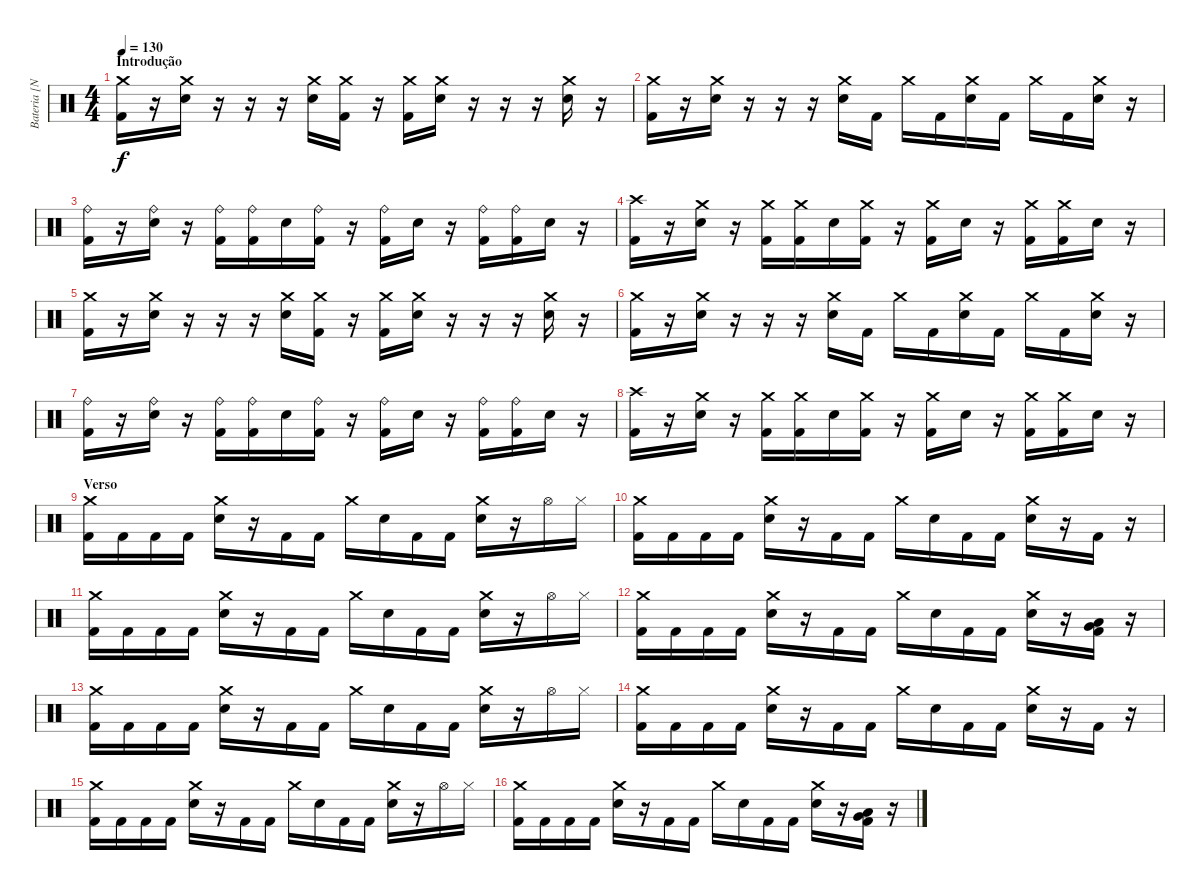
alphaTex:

\track ("Bateria [Nô]" "Bateria [N") {instrument percussion}
\staff {score}
\articulation defaults
\ts (4 4)
\section ("" "Introdução")
\tempo 130
\clef neutral
\ks c
("Crash medium (hit)" "Kick (hit) 2").16{dy f} r.16 ("Crash medium (hit)" "Snare (hit) 2").16 r.16 r.16 r.16 ("Crash medium (hit)" "Snare (hit) 2").16 ("Crash medium (hit)" "Kick (hit) 2").16 r.16 ("Crash medium (hit)" "Kick (hit) 2").16 ("Crash medium (hit)" "Snare (hit) 2").16 r.16 r.16 r.16 ("Crash medium (hit)" "Snare (hit) 2").16 r.16 |
("Crash medium (hit)" "Kick (hit) 2").16 r.16 ("Crash medium (hit)" "Snare (hit) 2").16 r.16 r.16 r.16 ("Crash medium (hit)" "Snare (hit) 2").16 "Kick (hit) 2".16 "Crash medium (hit)".16 "Kick (hit) 2".16 ("Crash medium (hit)" "Snare (hit) 2").16 "Kick (hit) 2".16 "Crash medium (hit)".16 "Kick (hit) 2".16 ("Crash medium (hit)" "Snare (hit) 2").16 r.16 |
("Ride (bell)" "Kick (hit) 2").16 r.16 ("Ride (bell)" "Snare (hit) 2").16 r.16 ("Ride (bell)" "Kick (hit) 2").16 ("Ride (bell)" "Kick (hit) 2").16 "Snare (hit) 2".16 ("Ride (bell)" "Kick (hit) 2").16 r.16 ("Ride (bell)" "Kick (hit) 2").16 "Snare (hit) 2".16 r.16 ("Ride (bell)" "Kick (hit) 2").16 ("Ride (bell)" "Kick (hit) 2").16 "Snare (hit) 2".16 r.16 |
("Crash high (hit)" "Kick (hit) 2").16 r.16 ("Crash medium (hit)" "Snare (hit) 2").16 r.16 ("Crash medium (hit)" "Kick (hit) 2").16 ("Crash medium (hit)" "Kick (hit) 2").16 "Snare (hit) 2".16 ("Crash medium (hit)" "Kick (hit) 2").16 r.16 ("Crash medium (hit)" "Kick (hit) 2").16 "Snare (hit) 2".16 r.16 ("Crash medium (hit)" "Kick (hit) 2").16 ("Crash medium (hit)" "Kick (hit) 2").16 "Snare (hit) 2".16 r.16 |
("Crash medium (hit)" "Kick (hit) 2").16 r.16 ("Crash medium (hit)" "Snare (hit) 2").16 r.16 r.16 r.16 ("Crash medium (hit)" "Snare (hit) 2").16 ("Crash medium (hit)" "Kick (hit) 2").16 r.16 ("Crash medium (hit)" "Kick (hit) 2").16 ("Crash medium (hit)" "Snare (hit) 2").16 r.16 r.16 r.16 ("Crash medium (hit)" "Snare (hit) 2").16 r.16 |
("Crash medium (hit)" "Kick (hit) 2").16 r.16 ("Crash medium (hit)" "Snare (hit) 2").16 r.16 r.16 r.16 ("Crash medium (hit)" "Snare (hit) 2").16 "Kick (hit) 2".16 "Crash medium (hit)".16 "Kick (hit) 2".16 ("Crash medium (hit)" "Snare (hit) 2").16 "Kick (hit) 2".16 "Crash medium (hit)".16 "Kick (hit) 2".16 ("Crash medium (hit)" "Snare (hit) 2").16 r.16 |
("Ride (bell)" "Kick (hit) 2").16 r.16 ("Ride (bell)" "Snare (hit) 2").16 r.16 ("Ride (bell)" "Kick (hit) 2").16 ("Ride (bell)" "Kick (hit) 2").16 "Snare (hit) 2".16 ("Ride (bell)" "Kick (hit) 2").16 r.16 ("Ride (bell)" "Kick (hit) 2").16 "Snare (hit) 2".16 r.16 ("Ride (bell)" "Kick (hit) 2").16 ("Ride (bell)" "Kick (hit) 2").16 "Snare (hit) 2".16 r.16 |
("Crash high (hit)" "Kick (hit) 2").16 r.16 ("Crash medium (hit)" "Snare (hit) 2").16 r.16 ("Crash medium (hit)" "Kick (hit) 2").16 ("Crash medium (hit)" "Kick (hit) 2").16 "Snare (hit) 2".16 ("Crash medium (hit)" "Kick (hit) 2").16 r.16 ("Crash medium (hit)" "Kick (hit) 2").16 "Snare (hit) 2".16 r.16 ("Crash medium (hit)" "Kick (hit) 2").16 ("Crash medium (hit)" "Kick (hit) 2").16 "Snare (hit) 2".16 r.16 |
\section ("" "Verso")
("Crash medium (hit)" "Kick (hit) 2").16 "Kick (hit) 2".16 "Kick (hit) 2".16 "Kick (hit) 2".16 ("Crash medium (hit)" "Snare (hit) 2").16 r.16 "Kick (hit) 2".16 "Kick (hit) 2".16 "Crash medium (hit)".16 "Snare (hit) 2".16 "Kick (hit) 2".16 "Kick (hit) 2".16 ("Crash medium (hit)" "Snare (hit) 2").16 r.16 "Hi-Hat (open)".16 "Hi-Hat (closed)".16 |
("Crash medium (hit)" "Kick (hit) 2").16 "Kick (hit) 2".16 "Kick (hit) 2".16 "Kick (hit) 2".16 ("Crash medium (hit)" "Snare (hit) 2").16 r.16 "Kick (hit) 2".16 "Kick (hit) 2".16 "Crash medium (hit)".16 "Snare (hit) 2".16 "Kick (hit) 2".16 "Kick (hit) 2".16 ("Crash medium (hit)" "Snare (hit) 2").16 r.16 "Kick (hit) 2".16 r.16 |
("Crash medium (hit)" "Kick (hit) 2").16 "Kick (hit) 2".16 "Kick (hit) 2".16 "Kick (hit) 2".16 ("Crash medium (hit)" "Snare (hit) 2").16 r.16 "Kick (hit) 2".16 "Kick (hit) 2".16 "Crash medium (hit)".16 "Snare (hit) 2".16 "Kick (hit) 2".16 "Kick (hit) 2".16 ("Crash medium (hit)" "Snare (hit) 2").16 r.16 "Hi-Hat (open)".16 "Hi-Hat (closed)".16 |
("Crash medium (hit)" "Kick (hit) 2").16 "Kick (hit) 2".16 "Kick (hit) 2".16 "Kick (hit) 2".16 ("Crash medium (hit)" "Snare (hit) 2").16 r.16 "Kick (hit) 2".16 "Kick (hit) 2".16 "Crash medium (hit)".16 "Snare (hit) 2".16 "Kick (hit) 2".16 "Kick (hit) 2".16 ("Crash medium (hit)" "Snare (hit) 2").16 r.16 ("Very Low Tom (hit)" "Low Floor Tom (hit)" "Kick (hit) 2").16 r.16 |
("Crash medium (hit)" "Kick (hit) 2").16 "Kick (hit) 2".16 "Kick (hit) 2".16 "Kick (hit) 2".16 ("Crash medium (hit)" "Snare (hit) 2").16 r.16 "Kick (hit) 2".16 "Kick (hit) 2".16 "Crash medium (hit)".16 "Snare (hit) 2".16 "Kick (hit) 2".16 "Kick (hit) 2".16 ("Crash medium (hit)" "Snare (hit) 2").16 r.16 "Hi-Hat (open)".16 "Hi-Hat (closed)".16 |
("Crash medium (hit)" "Kick (hit) 2").16 "Kick (hit) 2".16 "Kick (hit) 2".16 "Kick (hit) 2".16 ("Crash medium (hit)" "Snare (hit) 2").16 r.16 "Kick (hit) 2".16 "Kick (hit) 2".16 "Crash medium (hit)".16 "Snare (hit) 2".16 "Kick (hit) 2".16 "Kick (hit) 2".16 ("Crash medium (hit)" "Snare (hit) 2").16 r.16 "Kick (hit) 2".16 r.16 |
("Crash medium (hit)" "Kick (hit) 2").16 "Kick (hit) 2".16 "Kick (hit) 2".16 "Kick (hit) 2".16 ("Crash medium (hit)" "Snare (hit) 2").16 r.16 "Kick (hit) 2".16 "Kick (hit) 2".16 "Crash medium (hit)".16 "Snare (hit) 2".16 "Kick (hit) 2".16 "Kick (hit) 2".16 ("Crash medium (hit)" "Snare (hit) 2").16 r.16 "Hi-Hat (open)".16 "Hi-Hat (closed)".16 |
("Crash medium (hit)" "Kick (hit) 2").16 "Kick (hit) 2".16 "Kick (hit) 2".16 "Kick (hit) 2".16 ("Crash medium (hit)" "Snare (hit) 2").16 r.16 "Kick (hit) 2".16 "Kick (hit) 2".16 "Crash medium (hit)".16 "Snare (hit) 2".16 "Kick (hit) 2".16 "Kick (hit) 2".16 ("Crash medium (hit)" "Snare (hit) 2").16 r.16 ("Very Low Tom (hit)" "Low Floor Tom (hit)" "Kick (hit) 2").16 r.16
